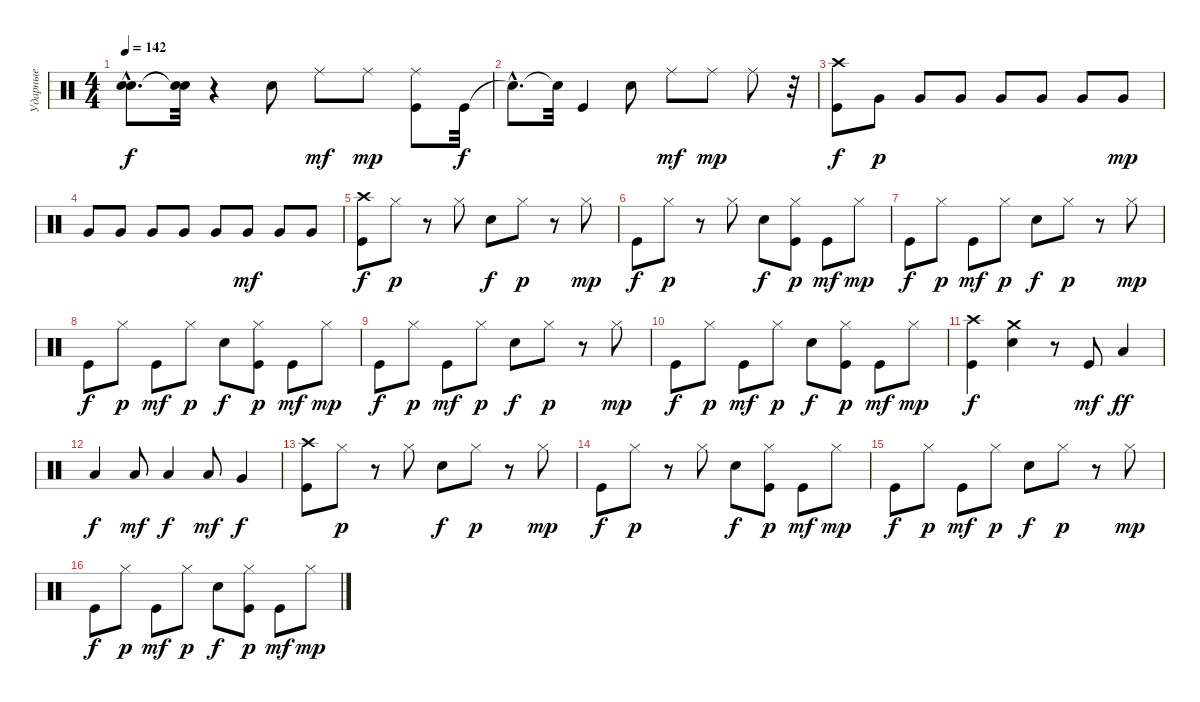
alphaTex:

\track ("Ударные" "Ударные") {instrument percussion}
\staff {score}
\articulation defaults
\ts (4 4)
\tempo 142
\clef neutral
\ks c
("Snare (hit)"{hac t} "Snare (hit)"{hac t}).8{d dy f} ("Snare (hit)"{t} "Snare (hit)"{t}).32 r.4 "Electric Snare (hit)".8 "Ride (middle)".8{dy mf} "Ride (middle)".8{dy mp} ("Kick (hit)" "Ride (middle)").8 "Kick (hit)".32{dy f} |
"Snare (hit)"{hac t}.8{d} "Snare (hit)"{t}.32 "Kick (hit)".4 "Electric Snare (hit)".8 "Ride (middle)".8{dy mf} "Ride (middle)".8{dy mp} "Ride (middle)".8 r.32 |
("Crash high (hit)" "Kick (hit)").8{dy f} "Very Low Tom (hit)".8{dy p} "Very Low Tom (hit)".8 "Very Low Tom (hit)".8 "Very Low Tom (hit)".8 "Very Low Tom (hit)".8 "Very Low Tom (hit)".8 "Very Low Tom (hit)".8{dy mp} |
"Very Low Tom (hit)".8 "Very Low Tom (hit)".8 "Very Low Tom (hit)".8 "Very Low Tom (hit)".8 "Very Low Tom (hit)".8 "Very Low Tom (hit)".8{dy mf} "Very Low Tom (hit)".8 "Very Low Tom (hit)".8 |
("Crash high (hit)" "Kick (hit)").8{dy f} "Hi-Hat (closed)".8{dy p} r.8 "Hi-Hat (closed)".8 "Snare (hit) 2".8{dy f} "Hi-Hat (closed)".8{dy p} r.8 "Hi-Hat (closed)".8{dy mp} |
"Kick (hit)".8{dy f} "Hi-Hat (closed)".8{dy p} r.8 "Hi-Hat (closed)".8 "Snare (hit) 2".8{dy f} ("Kick (hit)" "Hi-Hat (closed)").8{dy p} "Kick (hit)".8{dy mf} "Hi-Hat (closed)".8{dy mp} |
"Kick (hit)".8{dy f} "Hi-Hat (closed)".8{dy p} "Kick (hit)".8{dy mf} "Hi-Hat (closed)".8{dy p} "Snare (hit) 2".8{dy f} "Hi-Hat (closed)".8{dy p} r.8 "Hi-Hat (closed)".8{dy mp} |
"Kick (hit)".8{dy f} "Hi-Hat (closed)".8{dy p} "Kick (hit)".8{dy mf} "Hi-Hat (closed)".8{dy p} "Snare (hit) 2".8{dy f} ("Kick (hit)" "Hi-Hat (closed)").8{dy p} "Kick (hit)".8{dy mf} "Hi-Hat (closed)".8{dy mp} |
"Kick (hit)".8{dy f} "Hi-Hat (closed)".8{dy p} "Kick (hit)".8{dy mf} "Hi-Hat (closed)".8{dy p} "Snare (hit) 2".8{dy f} "Hi-Hat (closed)".8{dy p} r.8 "Hi-Hat (closed)".8{dy mp} |
"Kick (hit)".8{dy f} "Hi-Hat (closed)".8{dy p} "Kick (hit)".8{dy mf} "Hi-Hat (closed)".8{dy p} "Snare (hit) 2".8{dy f} ("Kick (hit)" "Hi-Hat (closed)").8{dy p} "Kick (hit)".8{dy mf} "Hi-Hat (closed)".8{dy mp} |
("Crash high (hit)" "Kick (hit)").4{dy f} ("Crash medium (hit)" "Snare (hit) 2").4 r.8 "Kick (hit)".8{dy mf} "Low Tom (hit)".4{dy ff} |
"Low Tom (hit)".4{dy f} "Low Tom (hit)".8{dy mf} "Low Tom (hit)".4{dy f} "Low Tom (hit)".8{dy mf} "Very Low Tom (hit)".4{dy f} |
("Crash high (hit)" "Kick (hit)").8 "Hi-Hat (closed)".8{dy p} r.8 "Hi-Hat (closed)".8 "Snare (hit) 2".8{dy f} "Hi-Hat (closed)".8{dy p} r.8 "Hi-Hat (closed)".8{dy mp} |
"Kick (hit)".8{dy f} "Hi-Hat (closed)".8{dy p} r.8 "Hi-Hat (closed)".8 "Snare (hit) 2".8{dy f} ("Kick (hit)" "Hi-Hat (closed)").8{dy p} "Kick (hit)".8{dy mf} "Hi-Hat (closed)".8{dy mp} |
"Kick (hit)".8{dy f} "Hi-Hat (closed)".8{dy p} "Kick (hit)".8{dy mf} "Hi-Hat (closed)".8{dy p} "Snare (hit) 2".8{dy f} "Hi-Hat (closed)".8{dy p} r.8 "Hi-Hat (closed)".8{dy mp} |
"Kick (hit)".8{dy f} "Hi-Hat (closed)".8{dy p} "Kick (hit)".8{dy mf} "Hi-Hat (closed)".8{dy p} "Snare (hit) 2".8{dy f} ("Kick (hit)" "Hi-Hat (closed)").8{dy p} "Kick (hit)".8{dy mf} "Hi-Hat (closed)".8{dy mp}
